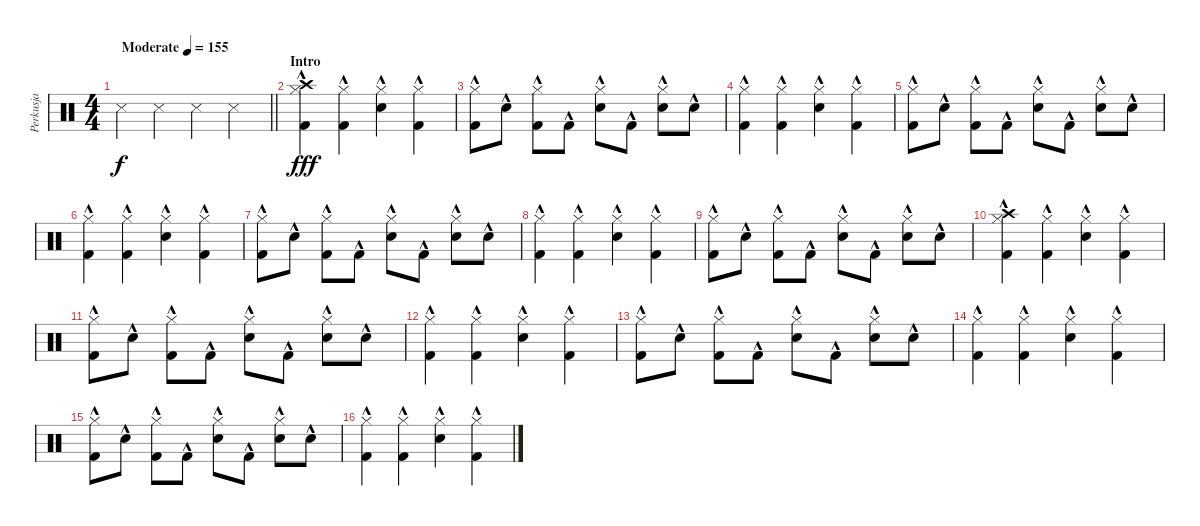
\track ("Perkusja" "Perkusja") {instrument percussion}
\staff {score}
\articulation defaults
\ts (4 4)
\tempo (155 "Moderate")
\clef neutral
\barLineRight lightlight
\ks c "Snare (side stick) 3".4{dy f} "Snare (side stick) 3".4 "Snare (side stick) 3".4 "Snare (side stick) 3".4
|
\section ("" "Intro")
("Crash high (hit)" "Hi-Hat (closed)" "Kick (hit) 2"{hac}).4{dy fff} ("Hi-Hat (closed)" "Kick (hit) 2"{hac}).4 ("Hi-Hat (closed)" "Electric Snare (hit)"{hac}).4 ("Hi-Hat (closed)" "Kick (hit) 2"{hac}).4 |
("Hi-Hat (closed)" "Kick (hit) 2"{hac}).8 "Electric Snare (hit)"{hac}.8 ("Hi-Hat (closed)" "Kick (hit) 2"{hac}).8 "Kick (hit) 2"{hac}.8 ("Hi-Hat (closed)" "Electric Snare (hit)"{hac}).8 "Kick (hit) 2"{hac}.8 ("Hi-Hat (closed)" "Electric Snare (hit)"{hac}).8 "Electric Snare (hit)"{hac}.8 |
("Hi-Hat (closed)" "Kick (hit) 2"{hac}).4 ("Hi-Hat (closed)" "Kick (hit) 2"{hac}).4 ("Hi-Hat (closed)" "Electric Snare (hit)"{hac}).4 ("Hi-Hat (closed)" "Kick (hit) 2"{hac}).4 |
("Hi-Hat (closed)" "Kick (hit) 2"{hac}).8 "Electric Snare (hit)"{hac}.8 ("Hi-Hat (closed)" "Kick (hit) 2"{hac}).8 "Kick (hit) 2"{hac}.8 ("Hi-Hat (closed)" "Electric Snare (hit)"{hac}).8 "Kick (hit) 2"{hac}.8 ("Hi-Hat (closed)" "Electric Snare (hit)"{hac}).8 "Electric Snare (hit)"{hac}.8 |
("Hi-Hat (closed)" "Kick (hit) 2"{hac}).4 ("Hi-Hat (closed)" "Kick (hit) 2"{hac}).4 ("Hi-Hat (closed)" "Electric Snare (hit)"{hac}).4 ("Hi-Hat (closed)" "Kick (hit) 2"{hac}).4 |
("Hi-Hat (closed)" "Kick (hit) 2"{hac}).8 "Electric Snare (hit)"{hac}.8 ("Hi-Hat (closed)" "Kick (hit) 2"{hac}).8 "Kick (hit) 2"{hac}.8 ("Hi-Hat (closed)" "Electric Snare (hit)"{hac}).8 "Kick (hit) 2"{hac}.8 ("Hi-Hat (closed)" "Electric Snare (hit)"{hac}).8 "Electric Snare (hit)"{hac}.8 |
("Hi-Hat (closed)" "Kick (hit) 2"{hac}).4 ("Hi-Hat (closed)" "Kick (hit) 2"{hac}).4 ("Hi-Hat (closed)" "Electric Snare (hit)"{hac}).4 ("Hi-Hat (closed)" "Kick (hit) 2"{hac}).4 |
("Hi-Hat (closed)" "Kick (hit) 2"{hac}).8 "Electric Snare (hit)"{hac}.8 ("Hi-Hat (closed)" "Kick (hit) 2"{hac}).8 "Kick (hit) 2"{hac}.8 ("Hi-Hat (closed)" "Electric Snare (hit)"{hac}).8 "Kick (hit) 2"{hac}.8 ("Hi-Hat (closed)" "Electric Snare (hit)"{hac}).8 "Electric Snare (hit)"{hac}.8 |
("Crash high (hit)" "Hi-Hat (closed)" "Kick (hit) 2"{hac}).4 ("Hi-Hat (closed)" "Kick (hit) 2"{hac}).4 ("Hi-Hat (closed)" "Electric Snare (hit)"{hac}).4 ("Hi-Hat (closed)" "Kick (hit) 2"{hac}).4 |
("Hi-Hat (closed)" "Kick (hit) 2"{hac}).8 "Electric Snare (hit)"{hac}.8 ("Hi-Hat (closed)" "Kick (hit) 2"{hac}).8 "Kick (hit) 2"{hac}.8 ("Hi-Hat (closed)" "Electric Snare (hit)"{hac}).8 "Kick (hit) 2"{hac}.8 ("Hi-Hat (closed)" "Electric Snare (hit)"{hac}).8 "Electric Snare (hit)"{hac}.8 |
("Hi-Hat (closed)" "Kick (hit) 2"{hac}).4 ("Hi-Hat (closed)" "Kick (hit) 2"{hac}).4 ("Hi-Hat (closed)" "Electric Snare (hit)"{hac}).4 ("Hi-Hat (closed)" "Kick (hit) 2"{hac}).4 |
("Hi-Hat (closed)" "Kick (hit) 2"{hac}).8 "Electric Snare (hit)"{hac}.8 ("Hi-Hat (closed)" "Kick (hit) 2"{hac}).8 "Kick (hit) 2"{hac}.8 ("Hi-Hat (closed)" "Electric Snare (hit)"{hac}).8 "Kick (hit) 2"{hac}.8 ("Hi-Hat (closed)" "Electric Snare (hit)"{hac}).8 "Electric Snare (hit)"{hac}.8 |
("Hi-Hat (closed)" "Kick (hit) 2"{hac}).4 ("Hi-Hat (closed)" "Kick (hit) 2"{hac}).4 ("Hi-Hat (closed)" "Electric Snare (hit)"{hac}).4 ("Hi-Hat (closed)" "Kick (hit) 2"{hac}).4 |
("Hi-Hat (closed)" "Kick (hit) 2"{hac}).8 "Electric Snare (hit)"{hac}.8 ("Hi-Hat (closed)" "Kick (hit) 2"{hac}).8 "Kick (hit) 2"{hac}.8 ("Hi-Hat (closed)" "Electric Snare (hit)"{hac}).8 "Kick (hit) 2"{hac}.8 ("Hi-Hat (closed)" "Electric Snare (hit)"{hac}).8 "Electric Snare (hit)"{hac}.8 |
("Hi-Hat (closed)" "Kick (hit) 2"{hac}).4 ("Hi-Hat (closed)" "Kick (hit) 2"{hac}).4 ("Hi-Hat (closed)" "Electric Snare (hit)"{hac}).4 ("Hi-Hat (closed)" "Kick (hit) 2"{hac}).4
